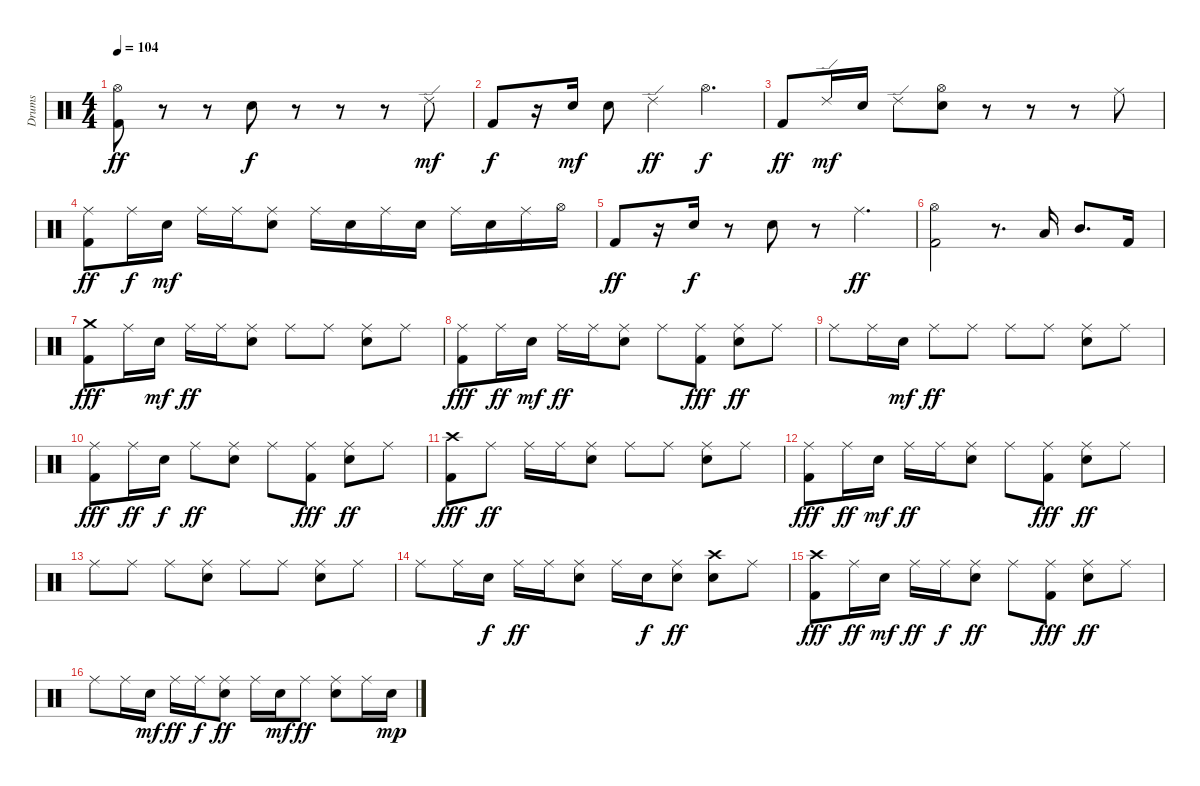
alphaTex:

\track ("Drums" "Drums") {instrument percussion}
\staff {score}
\articulation defaults
\ts (4 4)
\tempo 104
\clef neutral
\ks c
("Hi-Hat (open)" "Kick (hit) 2").8{dy ff} r.8 r.8 "Electric Snare (hit)".8{dy f} r.8 r.8 r.8 "Ride (edge) 2".8{dy mf} |
"Kick (hit) 2".8{dy f} r.16 "Electric Snare (hit)".16{dy mf} "Electric Snare (hit)".8 "Ride (edge) 2".4{dy ff} "Hi-Hat (open)".4{d dy f} |
"Kick (hit) 2".8{dy ff} "Ride (edge) 2".16{dy mf} "Electric Snare (hit)".16 "Ride (edge) 2".8 ("Hi-Hat (open)" "Electric Snare (hit)").8 r.8 r.8 r.8 "Ride (middle)".8 |
("Ride (middle)" "Kick (hit) 2").8{dy ff} "Ride (middle)".16{dy f} "Electric Snare (hit)".16{dy mf} "Ride (middle)".16 "Ride (middle)".16 ("Ride (middle)" "Electric Snare (hit)").8 "Ride (middle)".16 "Electric Snare (hit)".16 "Ride (middle)".16 "Electric Snare (hit)".16 "Ride (middle)".16 "Electric Snare (hit)".16 "Ride (middle)".16 "Hi-Hat (open)".16 |
"Kick (hit) 2".8{dy ff} r.16 "Electric Snare (hit)".16{dy f} r.8 "Electric Snare (hit)".8 r.8 "Ride (middle)".4{d dy ff} |
("Hi-Hat (open)" "Kick (hit) 2").2 r.8{d} "Low Tom (hit)".16 "Mid Tom (hit)".8{d} "Kick (hit) 2".16 |
("Crash medium (hit)" "Kick (hit) 2").8{dy fff} "Ride (middle)".16 "Electric Snare (hit)".16{dy mf} "Ride (middle)".16{dy ff} "Ride (middle)".16 ("Ride (middle)" "Electric Snare (hit)").8 "Ride (middle)".8 "Ride (middle)".8 ("Ride (middle)" "Electric Snare (hit)").8 "Ride (middle)".8 |
("Ride (middle)" "Kick (hit) 2").8{dy fff} "Ride (middle)".16{dy ff} "Electric Snare (hit)".16{dy mf} "Ride (middle)".16{dy ff} "Ride (middle)".16 ("Ride (middle)" "Electric Snare (hit)").8 "Ride (middle)".8 ("Ride (middle)" "Kick (hit) 2").8{dy fff} ("Ride (middle)" "Electric Snare (hit)").8{dy ff} "Ride (middle)".8 |
"Ride (middle)".8 "Ride (middle)".16 "Electric Snare (hit)".16{dy mf} "Ride (middle)".8{dy ff} "Ride (middle)".8 "Ride (middle)".8 "Ride (middle)".8 ("Ride (middle)" "Electric Snare (hit)").8 "Ride (middle)".8 |
("Ride (middle)" "Kick (hit) 2").8{dy fff} "Ride (middle)".16{dy ff} "Electric Snare (hit)".16{dy f} "Ride (middle)".8{dy ff} ("Ride (middle)" "Electric Snare (hit)").8 "Ride (middle)".8 ("Ride (middle)" "Kick (hit) 2").8{dy fff} ("Ride (middle)" "Electric Snare (hit)").8{dy ff} "Ride (middle)".8 |
("Crash high (hit)" "Kick (hit) 2").8{dy fff} "Ride (middle)".8{dy ff} "Ride (middle)".16 "Ride (middle)".16 ("Ride (middle)" "Electric Snare (hit)").8 "Ride (middle)".8 "Ride (middle)".8 ("Ride (middle)" "Electric Snare (hit)").8 "Ride (middle)".8 |
("Ride (middle)" "Kick (hit) 2").8{dy fff} "Ride (middle)".16{dy ff} "Electric Snare (hit)".16{dy mf} "Ride (middle)".16{dy ff} "Ride (middle)".16 ("Ride (middle)" "Electric Snare (hit)").8 "Ride (middle)".8 ("Ride (middle)" "Kick (hit) 2").8{dy fff} ("Ride (middle)" "Electric Snare (hit)").8{dy ff} "Ride (middle)".8 |
"Ride (middle)".8 "Ride (middle)".8 "Ride (middle)".8 ("Ride (middle)" "Electric Snare (hit)").8 "Ride (middle)".8 "Ride (middle)".8 ("Ride (middle)" "Electric Snare (hit)").8 "Ride (middle)".8 |
"Ride (middle)".8 "Ride (middle)".16 "Electric Snare (hit)".16{dy f} "Ride (middle)".16{dy ff} "Ride (middle)".16 ("Ride (middle)" "Electric Snare (hit)").8 "Ride (middle)".16 "Electric Snare (hit)".16{dy f} ("Ride (middle)" "Electric Snare (hit)").8{dy ff} ("Crash high (hit)" "Electric Snare (hit)").8 "Ride (middle)".8 |
("Crash high (hit)" "Kick (hit) 2").8{dy fff} "Ride (middle)".16{dy ff} "Electric Snare (hit)".16{dy mf} "Ride (middle)".16{dy ff} "Ride (middle)".16{dy f} ("Ride (middle)" "Electric Snare (hit)").8{dy ff} "Ride (middle)".8 ("Ride (middle)" "Kick (hit) 2").8{dy fff} ("Ride (middle)" "Electric Snare (hit)").8{dy ff} "Ride (middle)".8 |
"Ride (middle)".8 "Ride (middle)".16 "Electric Snare (hit)".16{dy mf} "Ride (middle)".16{dy ff} "Ride (middle)".16{dy f} ("Ride (middle)" "Electric Snare (hit)").8{dy ff} "Ride (middle)".16 "Electric Snare (hit)".16{dy mf} "Ride (middle)".8{dy ff} ("Ride (middle)" "Electric Snare (hit)").8 "Ride (middle)".16 "Electric Snare (hit)".16{dy mp}
